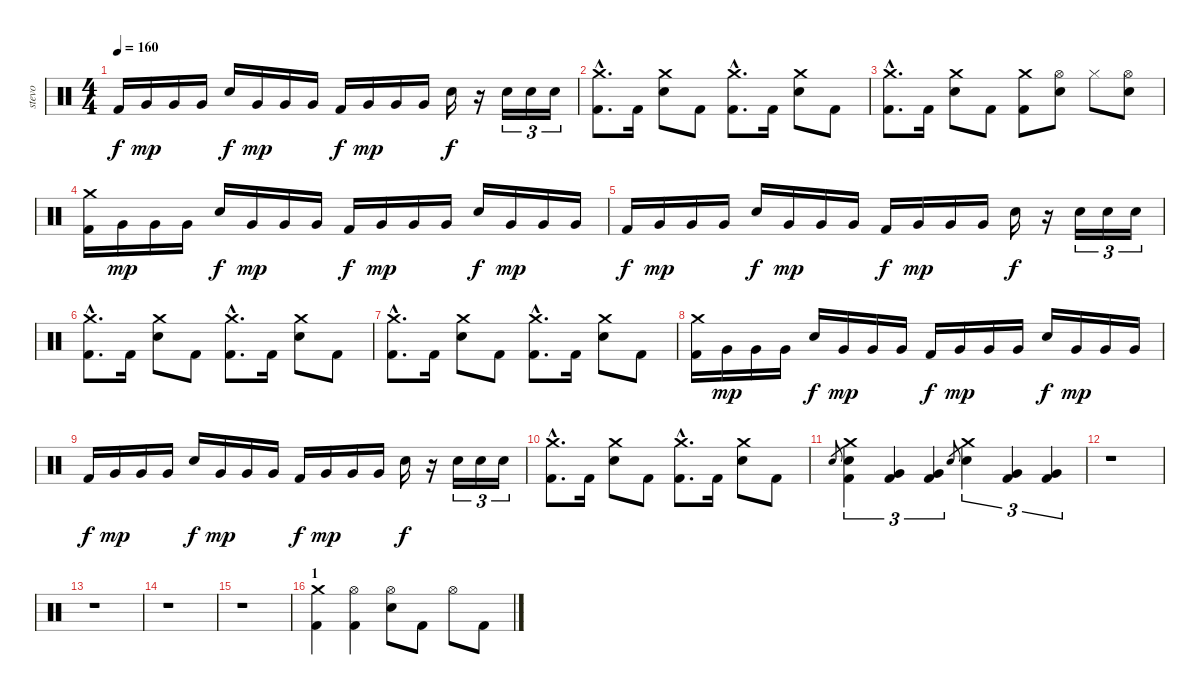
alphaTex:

\track ("stevo" "stevo") {instrument percussion}
\staff {score}
\articulation defaults
\ts (4 4)
\tempo 160
\clef neutral
\ks c "Kick (hit) 2".16{dy f} "Very Low Tom (hit)".16{dy mp} "Very Low Tom (hit)".16 "Very Low Tom (hit)".16 "Electric Snare (hit)".16{dy f} "Very Low Tom (hit)".16{dy mp} "Very Low Tom (hit)".16 "Very Low Tom (hit)".16 "Kick (hit) 2".16{dy f} "Very Low Tom (hit)".16{dy mp} "Very Low Tom (hit)".16 "Very Low Tom (hit)".16 "Electric Snare (hit)".16{dy f}
r.16 "Electric Snare (hit)".16{tu (3 2)} "Electric Snare (hit)".16{tu (3 2)} "Electric Snare (hit)".16{tu (3 2)} |
("Crash medium (hit)"{hac} "Kick (hit) 2"{hac}).8{d} "Kick (hit) 2".16 ("Crash medium (hit)" "Electric Snare (hit)").8 "Kick (hit) 2".8 ("Crash medium (hit)"{hac} "Kick (hit) 2"{hac}).8{d} "Kick (hit) 2".16 ("Crash medium (hit)" "Electric Snare (hit)").8 "Kick (hit) 2".8 |
("Crash medium (hit)"{hac} "Kick (hit) 2"{hac}).8{d} "Kick (hit) 2".16 ("Crash medium (hit)" "Electric Snare (hit)").8 "Kick (hit) 2".8 ("Crash medium (hit)" "Kick (hit) 2").8 ("Hi-Hat (open)" "Electric Snare (hit)").8 "Hi-Hat (closed)".8 ("Hi-Hat (open)" "Electric Snare (hit)").8 |
("Crash medium (hit)" "Kick (hit) 2").16 "Very Low Tom (hit)".16{dy mp} "Very Low Tom (hit)".16 "Very Low Tom (hit)".16 "Electric Snare (hit)".16{dy f} "Very Low Tom (hit)".16{dy mp} "Very Low Tom (hit)".16 "Very Low Tom (hit)".16 "Kick (hit) 2".16{dy f} "Very Low Tom (hit)".16{dy mp} "Very Low Tom (hit)".16 "Very Low Tom (hit)".16 "Electric Snare (hit)".16{dy f} "Very Low Tom (hit)".16{dy mp} "Very Low Tom (hit)".16 "Very Low Tom (hit)".16 |
"Kick (hit) 2".16{dy f} "Very Low Tom (hit)".16{dy mp} "Very Low Tom (hit)".16 "Very Low Tom (hit)".16 "Electric Snare (hit)".16{dy f} "Very Low Tom (hit)".16{dy mp} "Very Low Tom (hit)".16 "Very Low Tom (hit)".16 "Kick (hit) 2".16{dy f} "Very Low Tom (hit)".16{dy mp} "Very Low Tom (hit)".16 "Very Low Tom (hit)".16 "Electric Snare (hit)".16{dy f} r.16 "Electric Snare (hit)".16{tu (3 2)} "Electric Snare (hit)".16{tu (3 2)} "Electric Snare (hit)".16{tu (3 2)} |
("Crash medium (hit)"{hac} "Kick (hit) 2"{hac}).8{d} "Kick (hit) 2".16 ("Crash medium (hit)" "Electric Snare (hit)").8 "Kick (hit) 2".8 ("Crash medium (hit)"{hac} "Kick (hit) 2"{hac}).8{d} "Kick (hit) 2".16 ("Crash medium (hit)" "Electric Snare (hit)").8 "Kick (hit) 2".8 |
("Crash medium (hit)"{hac} "Kick (hit) 2"{hac}).8{d} "Kick (hit) 2".16 ("Crash medium (hit)" "Electric Snare (hit)").8 "Kick (hit) 2".8 ("Crash medium (hit)"{hac} "Kick (hit) 2"{hac}).8{d} "Kick (hit) 2".16 ("Crash medium (hit)" "Electric Snare (hit)").8 "Kick (hit) 2".8 |
("Crash medium (hit)" "Kick (hit) 2").16 "Very Low Tom (hit)".16{dy mp} "Very Low Tom (hit)".16 "Very Low Tom (hit)".16 "Electric Snare (hit)".16{dy f} "Very Low Tom (hit)".16{dy mp} "Very Low Tom (hit)".16 "Very Low Tom (hit)".16 "Kick (hit) 2".16{dy f} "Very Low Tom (hit)".16{dy mp} "Very Low Tom (hit)".16 "Very Low Tom (hit)".16 "Electric Snare (hit)".16{dy f} "Very Low Tom (hit)".16{dy mp} "Very Low Tom (hit)".16 "Very Low Tom (hit)".16 |
"Kick (hit) 2".16{dy f} "Very Low Tom (hit)".16{dy mp} "Very Low Tom (hit)".16 "Very Low Tom (hit)".16 "Electric Snare (hit)".16{dy f} "Very Low Tom (hit)".16{dy mp} "Very Low Tom (hit)".16 "Very Low Tom (hit)".16 "Kick (hit) 2".16{dy f} "Very Low Tom (hit)".16{dy mp} "Very Low Tom (hit)".16 "Very Low Tom (hit)".16 "Electric Snare (hit)".16{dy f} r.16 "Electric Snare (hit)".16{tu (3 2)} "Electric Snare (hit)".16{tu (3 2)} "Electric Snare (hit)".16{tu (3 2)} |
("Crash medium (hit)"{hac} "Kick (hit) 2"{hac}).8{d} "Kick (hit) 2".16 ("Crash medium (hit)" "Electric Snare (hit)").8 "Kick (hit) 2".8 ("Crash medium (hit)"{hac} "Kick (hit) 2"{hac}).8{d} "Kick (hit) 2".16 ("Crash medium (hit)" "Electric Snare (hit)").8 "Kick (hit) 2".8 |
"Electric Snare (hit)".8{gr} ("Crash medium (hit)" "Electric Snare (hit)" "Kick (hit) 2").4{tu (3 2)} ("Very Low Tom (hit)" "Kick (hit) 2").4{tu (3 2)} ("Very Low Tom (hit)" "Kick (hit) 2").4{tu (3 2)} "Electric Snare (hit)".8{gr} ("Crash medium (hit)" "Electric Snare (hit)").4{tu (3 2)} ("Very Low Tom (hit)" "Kick (hit) 2").4{tu (3 2)} ("Very Low Tom (hit)" "Kick (hit) 2").4{tu (3 2)} |
r.1 |
r.1 |
r.1 |
r.1 |
\section ("" "1")
("Crash medium (hit)" "Kick (hit) 2").4 ("Hi-Hat (open)" "Kick (hit) 2").4 ("Electric Snare (hit)" "Hi-Hat (open)").8 "Kick (hit) 2".8 "Hi-Hat (open)".8 "Kick (hit) 2".8
